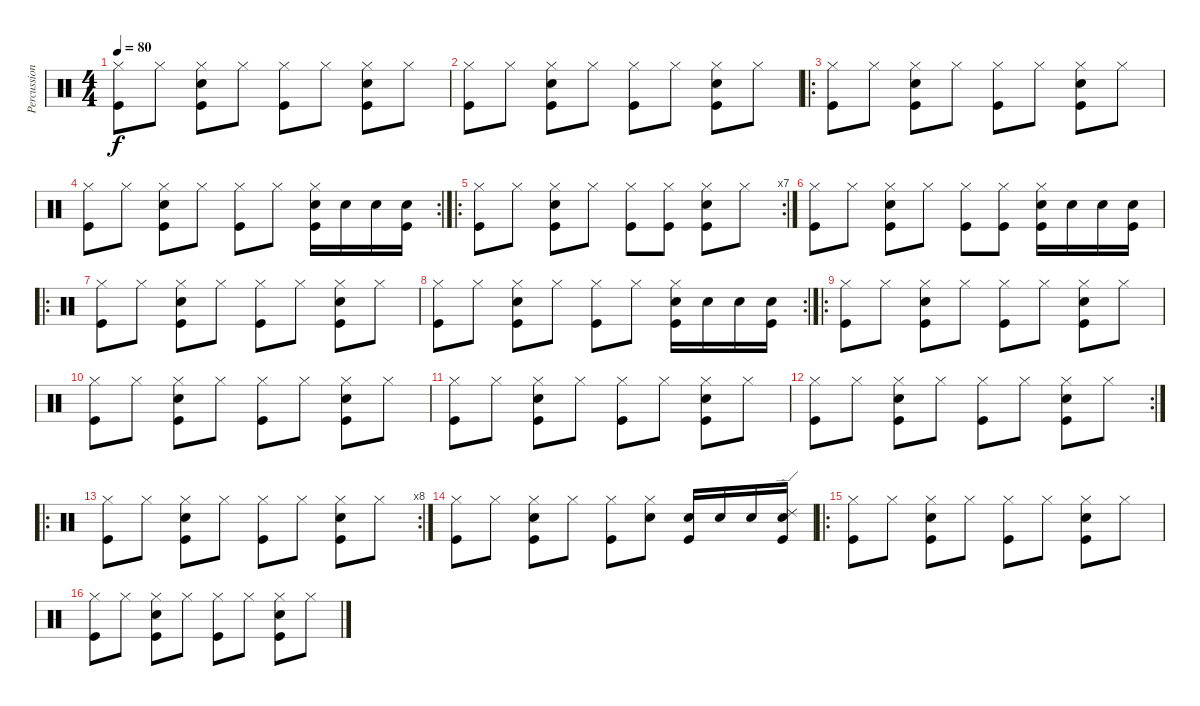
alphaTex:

\track ("Percussion" "Percussion") {instrument percussion}
\staff {score}
\articulation defaults
\ts (4 4)
\tempo 80
\clef neutral
\ks c
("Hi-Hat (closed)" "Kick (hit)").8{dy f} "Hi-Hat (closed)".8 ("Hi-Hat (closed)" "Snare (hit) 2" "Kick (hit)").8 "Hi-Hat (closed)".8 ("Hi-Hat (closed)" "Kick (hit)").8 "Hi-Hat (closed)".8 ("Hi-Hat (closed)" "Snare (hit) 2" "Kick (hit)").8 "Hi-Hat (closed)".8 |
("Hi-Hat (closed)" "Kick (hit)").8 "Hi-Hat (closed)".8 ("Hi-Hat (closed)" "Snare (hit) 2" "Kick (hit)").8 "Hi-Hat (closed)".8 ("Hi-Hat (closed)" "Kick (hit)").8 "Hi-Hat (closed)".8 ("Hi-Hat (closed)" "Snare (hit) 2" "Kick (hit)").8 "Hi-Hat (closed)".8 |
\ro
("Hi-Hat (closed)" "Kick (hit)").8 "Hi-Hat (closed)".8 ("Hi-Hat (closed)" "Snare (hit) 2" "Kick (hit)").8 "Hi-Hat (closed)".8 ("Hi-Hat (closed)" "Kick (hit)").8 "Hi-Hat (closed)".8 ("Hi-Hat (closed)" "Snare (hit) 2" "Kick (hit)").8 "Hi-Hat (closed)".8 |
\rc 2
("Hi-Hat (closed)" "Kick (hit)").8 "Hi-Hat (closed)".8 ("Hi-Hat (closed)" "Snare (hit) 2" "Kick (hit)").8 "Hi-Hat (closed)".8 ("Hi-Hat (closed)" "Kick (hit)").8 "Hi-Hat (closed)".8 ("Hi-Hat (closed)" "Snare (hit) 2" "Kick (hit)").16 "Snare (hit) 2".16 "Snare (hit) 2".16 ("Snare (hit) 2" "Kick (hit)").16 |
\ro
\rc 7
("Hi-Hat (closed)" "Kick (hit)").8 "Hi-Hat (closed)".8 ("Hi-Hat (closed)" "Snare (hit) 2" "Kick (hit)").8 "Hi-Hat (closed)".8 ("Hi-Hat (closed)" "Kick (hit)").8 ("Hi-Hat (closed)" "Kick (hit)").8 ("Hi-Hat (closed)" "Snare (hit) 2" "Kick (hit)").8 "Hi-Hat (closed)".8 |
("Hi-Hat (closed)" "Kick (hit)").8 "Hi-Hat (closed)".8 ("Hi-Hat (closed)" "Snare (hit) 2" "Kick (hit)").8 "Hi-Hat (closed)".8 ("Hi-Hat (closed)" "Kick (hit)").8 ("Hi-Hat (closed)" "Kick (hit)").8 ("Hi-Hat (closed)" "Snare (hit) 2" "Kick (hit)").16 "Snare (hit) 2".16 "Snare (hit) 2".16 ("Snare (hit) 2" "Kick (hit)").16 |
\ro
("Hi-Hat (closed)" "Kick (hit)").8 "Hi-Hat (closed)".8 ("Hi-Hat (closed)" "Snare (hit) 2" "Kick (hit)").8 "Hi-Hat (closed)".8 ("Hi-Hat (closed)" "Kick (hit)").8 "Hi-Hat (closed)".8 ("Hi-Hat (closed)" "Snare (hit) 2" "Kick (hit)").8 "Hi-Hat (closed)".8 |
\rc 2
("Hi-Hat (closed)" "Kick (hit)").8 "Hi-Hat (closed)".8 ("Hi-Hat (closed)" "Snare (hit) 2" "Kick (hit)").8 "Hi-Hat (closed)".8 ("Hi-Hat (closed)" "Kick (hit)").8 "Hi-Hat (closed)".8 ("Hi-Hat (closed)" "Snare (hit) 2" "Kick (hit)").16 "Snare (hit) 2".16 "Snare (hit) 2".16 ("Snare (hit) 2" "Kick (hit)").16 |
\ro
("Hi-Hat (closed)" "Kick (hit)").8 "Hi-Hat (closed)".8 ("Hi-Hat (closed)" "Snare (hit) 2" "Kick (hit)").8 "Hi-Hat (closed)".8 ("Hi-Hat (closed)" "Kick (hit)").8 "Hi-Hat (closed)".8 ("Hi-Hat (closed)" "Snare (hit) 2" "Kick (hit)").8 "Hi-Hat (closed)".8 |
("Hi-Hat (closed)" "Kick (hit)").8 "Hi-Hat (closed)".8 ("Hi-Hat (closed)" "Snare (hit) 2" "Kick (hit)").8 "Hi-Hat (closed)".8 ("Hi-Hat (closed)" "Kick (hit)").8 "Hi-Hat (closed)".8 ("Hi-Hat (closed)" "Snare (hit) 2" "Kick (hit)").8 "Hi-Hat (closed)".8 |
("Hi-Hat (closed)" "Kick (hit)").8 "Hi-Hat (closed)".8 ("Hi-Hat (closed)" "Snare (hit) 2" "Kick (hit)").8 "Hi-Hat (closed)".8 ("Hi-Hat (closed)" "Kick (hit)").8 "Hi-Hat (closed)".8 ("Hi-Hat (closed)" "Snare (hit) 2" "Kick (hit)").8 "Hi-Hat (closed)".8 |
\rc 2
("Hi-Hat (closed)" "Kick (hit)").8 "Hi-Hat (closed)".8 ("Hi-Hat (closed)" "Snare (hit) 2" "Kick (hit)").8 "Hi-Hat (closed)".8 ("Hi-Hat (closed)" "Kick (hit)").8 "Hi-Hat (closed)".8 ("Hi-Hat (closed)" "Snare (hit) 2" "Kick (hit)").8 "Hi-Hat (closed)".8 |
\ro
\rc 8
("Hi-Hat (closed)" "Kick (hit)").8 "Hi-Hat (closed)".8 ("Hi-Hat (closed)" "Snare (hit) 2" "Kick (hit)").8 "Hi-Hat (closed)".8 ("Hi-Hat (closed)" "Kick (hit)").8 "Hi-Hat (closed)".8 ("Hi-Hat (closed)" "Snare (hit) 2" "Kick (hit)").8 "Hi-Hat (closed)".8 |
("Hi-Hat (closed)" "Kick (hit)").8 "Hi-Hat (closed)".8 ("Hi-Hat (closed)" "Snare (hit) 2" "Kick (hit)").8 "Hi-Hat (closed)".8 ("Hi-Hat (closed)" "Kick (hit)").8 ("Hi-Hat (closed)" "Snare (hit) 2").8 ("Snare (hit) 2" "Kick (hit)").16 "Snare (hit) 2".16 "Snare (hit) 2".16 ("Ride (edge) 2" "Snare (hit) 2" "Kick (hit)").16 |
\ro
("Hi-Hat (closed)" "Kick (hit)").8 "Hi-Hat (closed)".8 ("Hi-Hat (closed)" "Snare (hit) 2" "Kick (hit)").8 "Hi-Hat (closed)".8 ("Hi-Hat (closed)" "Kick (hit)").8 "Hi-Hat (closed)".8 ("Hi-Hat (closed)" "Snare (hit) 2" "Kick (hit)").8 "Hi-Hat (closed)".8 |
("Hi-Hat (closed)" "Kick (hit)").8 "Hi-Hat (closed)".8 ("Hi-Hat (closed)" "Snare (hit) 2" "Kick (hit)").8 "Hi-Hat (closed)".8 ("Hi-Hat (closed)" "Kick (hit)").8 "Hi-Hat (closed)".8 ("Hi-Hat (closed)" "Snare (hit) 2" "Kick (hit)").8 "Hi-Hat (closed)".8
